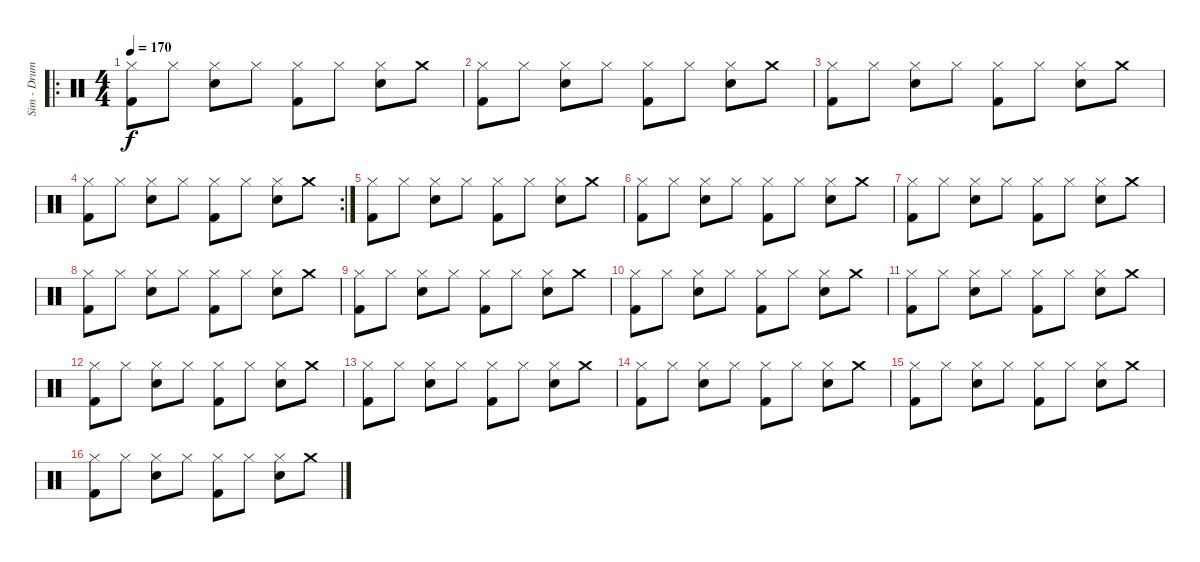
\track ("Sim - Drums" "Sim - Drum") {instrument percussion}
\staff {score}
\articulation defaults
\ro
\ts (4 4)
\tempo 170
\clef neutral
\ks c
("Hi-Hat (closed)" "Kick (hit) 2").8{dy f} "Hi-Hat (closed)".8 ("Hi-Hat (closed)" "Snare (hit) 2").8 "Hi-Hat (closed)".8 ("Hi-Hat (closed)" "Kick (hit) 2").8 "Hi-Hat (closed)".8 ("Hi-Hat (closed)" "Snare (hit) 2").8 "Crash medium (hit)".8 |
("Hi-Hat (closed)" "Kick (hit) 2").8 "Hi-Hat (closed)".8 ("Hi-Hat (closed)" "Snare (hit) 2").8 "Hi-Hat (closed)".8 ("Hi-Hat (closed)" "Kick (hit) 2").8 "Hi-Hat (closed)".8 ("Hi-Hat (closed)" "Snare (hit) 2").8 "Crash medium (hit)".8 |
("Hi-Hat (closed)" "Kick (hit) 2").8 "Hi-Hat (closed)".8 ("Hi-Hat (closed)" "Snare (hit) 2").8 "Hi-Hat (closed)".8 ("Hi-Hat (closed)" "Kick (hit) 2").8 "Hi-Hat (closed)".8 ("Hi-Hat (closed)" "Snare (hit) 2").8 "Crash medium (hit)".8 |
\rc 2
("Hi-Hat (closed)" "Kick (hit) 2").8 "Hi-Hat (closed)".8 ("Hi-Hat (closed)" "Snare (hit) 2").8 "Hi-Hat (closed)".8 ("Hi-Hat (closed)" "Kick (hit) 2").8 "Hi-Hat (closed)".8 ("Hi-Hat (closed)" "Snare (hit) 2").8 "Crash medium (hit)".8 |
("Hi-Hat (closed)" "Kick (hit) 2").8 "Hi-Hat (closed)".8 ("Hi-Hat (closed)" "Snare (hit) 2").8 "Hi-Hat (closed)".8 ("Hi-Hat (closed)" "Kick (hit) 2").8 "Hi-Hat (closed)".8 ("Hi-Hat (closed)" "Snare (hit) 2").8 "Crash medium (hit)".8 |
("Hi-Hat (closed)" "Kick (hit) 2").8 "Hi-Hat (closed)".8 ("Hi-Hat (closed)" "Snare (hit) 2").8 "Hi-Hat (closed)".8 ("Hi-Hat (closed)" "Kick (hit) 2").8 "Hi-Hat (closed)".8 ("Hi-Hat (closed)" "Snare (hit) 2").8 "Crash medium (hit)".8 |
("Hi-Hat (closed)" "Kick (hit) 2").8 "Hi-Hat (closed)".8 ("Hi-Hat (closed)" "Snare (hit) 2").8 "Hi-Hat (closed)".8 ("Hi-Hat (closed)" "Kick (hit) 2").8 "Hi-Hat (closed)".8 ("Hi-Hat (closed)" "Snare (hit) 2").8 "Crash medium (hit)".8 |
("Hi-Hat (closed)" "Kick (hit) 2").8 "Hi-Hat (closed)".8 ("Hi-Hat (closed)" "Snare (hit) 2").8 "Hi-Hat (closed)".8 ("Hi-Hat (closed)" "Kick (hit) 2").8 "Hi-Hat (closed)".8 ("Hi-Hat (closed)" "Snare (hit) 2").8 "Crash medium (hit)".8 |
("Hi-Hat (closed)" "Kick (hit) 2").8 "Hi-Hat (closed)".8 ("Hi-Hat (closed)" "Snare (hit) 2").8 "Hi-Hat (closed)".8 ("Hi-Hat (closed)" "Kick (hit) 2").8 "Hi-Hat (closed)".8 ("Hi-Hat (closed)" "Snare (hit) 2").8 "Crash medium (hit)".8 |
("Hi-Hat (closed)" "Kick (hit) 2").8 "Hi-Hat (closed)".8 ("Hi-Hat (closed)" "Snare (hit) 2").8 "Hi-Hat (closed)".8 ("Hi-Hat (closed)" "Kick (hit) 2").8 "Hi-Hat (closed)".8 ("Hi-Hat (closed)" "Snare (hit) 2").8 "Crash medium (hit)".8 |
("Hi-Hat (closed)" "Kick (hit) 2").8 "Hi-Hat (closed)".8 ("Hi-Hat (closed)" "Snare (hit) 2").8 "Hi-Hat (closed)".8 ("Hi-Hat (closed)" "Kick (hit) 2").8 "Hi-Hat (closed)".8 ("Hi-Hat (closed)" "Snare (hit) 2").8 "Crash medium (hit)".8 |
("Hi-Hat (closed)" "Kick (hit) 2").8 "Hi-Hat (closed)".8 ("Hi-Hat (closed)" "Snare (hit) 2").8 "Hi-Hat (closed)".8 ("Hi-Hat (closed)" "Kick (hit) 2").8 "Hi-Hat (closed)".8 ("Hi-Hat (closed)" "Snare (hit) 2").8 "Crash medium (hit)".8 |
("Hi-Hat (closed)" "Kick (hit) 2").8 "Hi-Hat (closed)".8 ("Hi-Hat (closed)" "Snare (hit) 2").8 "Hi-Hat (closed)".8 ("Hi-Hat (closed)" "Kick (hit) 2").8 "Hi-Hat (closed)".8 ("Hi-Hat (closed)" "Snare (hit) 2").8 "Crash medium (hit)".8 |
("Hi-Hat (closed)" "Kick (hit) 2").8 "Hi-Hat (closed)".8 ("Hi-Hat (closed)" "Snare (hit) 2").8 "Hi-Hat (closed)".8 ("Hi-Hat (closed)" "Kick (hit) 2").8 "Hi-Hat (closed)".8 ("Hi-Hat (closed)" "Snare (hit) 2").8 "Crash medium (hit)".8 |
("Hi-Hat (closed)" "Kick (hit) 2").8 "Hi-Hat (closed)".8 ("Hi-Hat (closed)" "Snare (hit) 2").8 "Hi-Hat (closed)".8 ("Hi-Hat (closed)" "Kick (hit) 2").8 "Hi-Hat (closed)".8 ("Hi-Hat (closed)" "Snare (hit) 2").8 "Crash medium (hit)".8 |
("Hi-Hat (closed)" "Kick (hit) 2").8 "Hi-Hat (closed)".8 ("Hi-Hat (closed)" "Snare (hit) 2").8 "Hi-Hat (closed)".8 ("Hi-Hat (closed)" "Kick (hit) 2").8 "Hi-Hat (closed)".8 ("Hi-Hat (closed)" "Snare (hit) 2").8 "Crash medium (hit)".8
